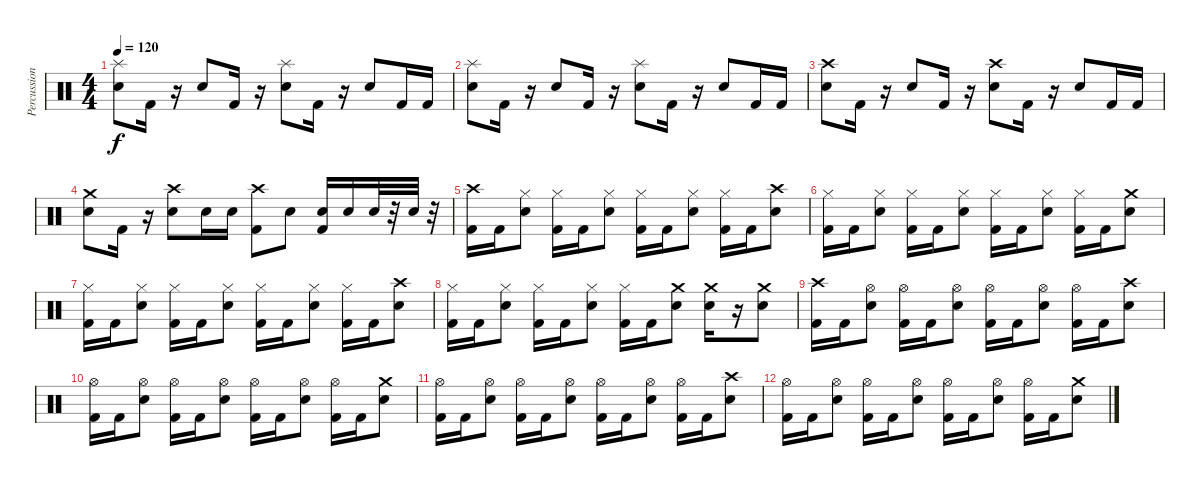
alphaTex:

\track ("Percussion" "Percussion") {instrument percussion}
\staff {score}
\articulation defaults
\ts (4 4)
\tempo 120
\clef neutral
\ks c
("Snare (hit) 2" "Splash (hit)").8{dy f} "Kick (hit) 2".16 r.16 "Snare (hit) 2".8 "Kick (hit) 2".16 r.16 ("Snare (hit) 2" "Splash (hit)").8 "Kick (hit) 2".16 r.16 "Snare (hit) 2".8 "Kick (hit) 2".16 "Kick (hit) 2".16 |
("Snare (hit) 2" "Splash (hit)").8 "Kick (hit) 2".16 r.16 "Snare (hit) 2".8 "Kick (hit) 2".16 r.16 ("Snare (hit) 2" "Splash (hit)").8 "Kick (hit) 2".16 r.16 "Snare (hit) 2".8 "Kick (hit) 2".16 "Kick (hit) 2".16 |
("Snare (hit) 2" "Crash high (hit)").8 "Kick (hit) 2".16 r.16 "Snare (hit) 2".8 "Kick (hit) 2".16 r.16 ("Snare (hit) 2" "Crash high (hit)").8 "Kick (hit) 2".16 r.16 "Snare (hit) 2".8 "Kick (hit) 2".16 "Kick (hit) 2".16 |
("Snare (hit) 2" "Crash medium (hit)").8 "Kick (hit) 2".16 r.16 ("Snare (hit) 2" "Crash high (hit)").8 "Snare (hit) 2".16 "Snare (hit) 2".16 ("Crash high (hit)" "Kick (hit) 2").8 "Snare (hit) 2".8 ("Snare (hit) 2" "Kick (hit) 2").16 "Snare (hit) 2".16 "Snare (hit) 2".32 r.32 "Snare (hit) 2".32 r.32 |
("Kick (hit) 2" "Crash high (hit)").16 "Kick (hit) 2".16 ("Snare (hit) 2" "Hi-Hat (closed)").8 ("Kick (hit) 2" "Hi-Hat (closed)").16 "Kick (hit) 2".16 ("Snare (hit) 2" "Hi-Hat (closed)").8 ("Kick (hit) 2" "Hi-Hat (closed)").16 "Kick (hit) 2".16 ("Snare (hit) 2" "Hi-Hat (closed)").8 ("Kick (hit) 2" "Hi-Hat (closed)").16 "Kick (hit) 2".16 ("Snare (hit) 2" "Crash high (hit)").8 |
("Kick (hit) 2" "Hi-Hat (closed)").16 "Kick (hit) 2".16 ("Snare (hit) 2" "Hi-Hat (closed)").8 ("Kick (hit) 2" "Hi-Hat (closed)").16 "Kick (hit) 2".16 ("Snare (hit) 2" "Hi-Hat (closed)").8 ("Kick (hit) 2" "Hi-Hat (closed)").16 "Kick (hit) 2".16 ("Snare (hit) 2" "Hi-Hat (closed)").8 ("Kick (hit) 2" "Hi-Hat (closed)").16 "Kick (hit) 2".16 ("Snare (hit) 2" "Crash medium (hit)").8 |
("Kick (hit) 2" "Hi-Hat (closed)").16 "Kick (hit) 2".16 ("Snare (hit) 2" "Hi-Hat (closed)").8 ("Kick (hit) 2" "Hi-Hat (closed)").16 "Kick (hit) 2".16 ("Snare (hit) 2" "Hi-Hat (closed)").8 ("Kick (hit) 2" "Hi-Hat (closed)").16 "Kick (hit) 2".16 ("Snare (hit) 2" "Hi-Hat (closed)").8 ("Kick (hit) 2" "Hi-Hat (closed)").16 "Kick (hit) 2".16 ("Snare (hit) 2" "Crash high (hit)").8 |
("Kick (hit) 2" "Hi-Hat (closed)").16 "Kick (hit) 2".16 ("Snare (hit) 2" "Hi-Hat (closed)").8 ("Kick (hit) 2" "Hi-Hat (closed)").16 "Kick (hit) 2".16 ("Snare (hit) 2" "Hi-Hat (closed)").8 ("Kick (hit) 2" "Hi-Hat (closed)").16 "Kick (hit) 2".16 ("Snare (hit) 2" "Crash medium (hit)").8 ("Snare (hit) 2" "Crash medium (hit)").16 r.16 ("Snare (hit) 2" "Crash medium (hit)").8 |
("Kick (hit) 2" "Crash high (hit)").16 "Kick (hit) 2".16 ("Snare (hit) 2" "Hi-Hat (open)").8 ("Kick (hit) 2" "Hi-Hat (open)").16 "Kick (hit) 2".16 ("Snare (hit) 2" "Hi-Hat (open)").8 ("Kick (hit) 2" "Hi-Hat (open)").16 "Kick (hit) 2".16 ("Snare (hit) 2" "Hi-Hat (open)").8 ("Kick (hit) 2" "Hi-Hat (open)").16 "Kick (hit) 2".16 ("Snare (hit) 2" "Crash high (hit)").8 |
("Kick (hit) 2" "Hi-Hat (open)").16 "Kick (hit) 2".16 ("Snare (hit) 2" "Hi-Hat (open)").8 ("Kick (hit) 2" "Hi-Hat (open)").16 "Kick (hit) 2".16 ("Snare (hit) 2" "Hi-Hat (open)").8 ("Kick (hit) 2" "Hi-Hat (open)").16 "Kick (hit) 2".16 ("Snare (hit) 2" "Hi-Hat (open)").8 ("Kick (hit) 2" "Hi-Hat (open)").16 "Kick (hit) 2".16 ("Snare (hit) 2" "Crash medium (hit)").8 |
("Kick (hit) 2" "Hi-Hat (open)").16 "Kick (hit) 2".16 ("Snare (hit) 2" "Hi-Hat (open)").8 ("Kick (hit) 2" "Hi-Hat (open)").16 "Kick (hit) 2".16 ("Snare (hit) 2" "Hi-Hat (open)").8 ("Kick (hit) 2" "Hi-Hat (open)").16 "Kick (hit) 2".16 ("Snare (hit) 2" "Hi-Hat (open)").8 ("Kick (hit) 2" "Hi-Hat (open)").16 "Kick (hit) 2".16 ("Snare (hit) 2" "Crash high (hit)").8 |
("Kick (hit) 2" "Hi-Hat (open)").16 "Kick (hit) 2".16 ("Snare (hit) 2" "Hi-Hat (open)").8 ("Kick (hit) 2" "Hi-Hat (open)").16 "Kick (hit) 2".16 ("Snare (hit) 2" "Hi-Hat (open)").8 ("Kick (hit) 2" "Hi-Hat (open)").16 "Kick (hit) 2".16 ("Snare (hit) 2" "Hi-Hat (open)").8 ("Kick (hit) 2" "Hi-Hat (open)").16 "Kick (hit) 2".16 ("Snare (hit) 2" "Crash medium (hit)").8
